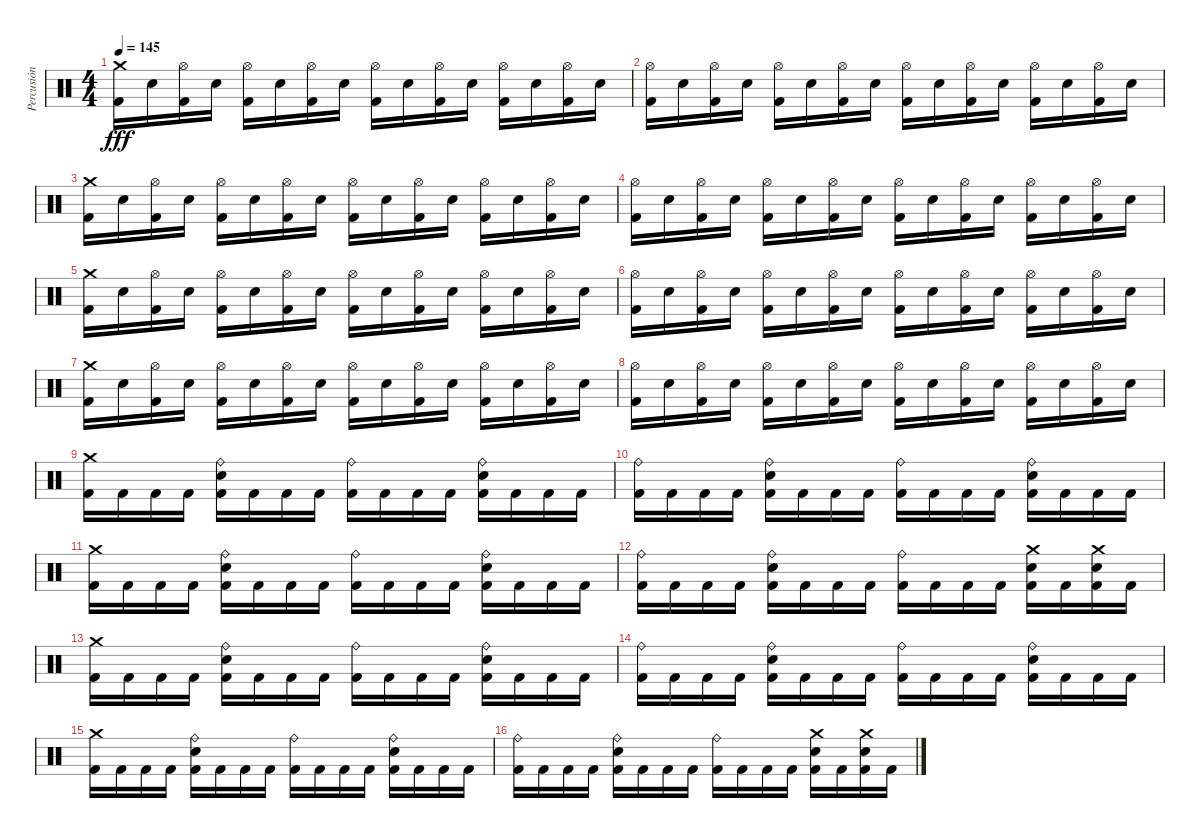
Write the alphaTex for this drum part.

\track ("Percusión" "Percusión") {instrument percussion}
\staff {score}
\articulation defaults
\ts (4 4)
\tempo 145
\clef neutral
\ks c
("Crash medium (hit)" "Kick (hit) 2").16{dy fff} "Snare (hit) 2".16 ("Hi-Hat (open)" "Kick (hit) 2").16 "Snare (hit) 2".16 ("Hi-Hat (open)" "Kick (hit) 2").16 "Snare (hit) 2".16 ("Hi-Hat (open)" "Kick (hit) 2").16 "Snare (hit) 2".16 ("Hi-Hat (open)" "Kick (hit) 2").16 "Snare (hit) 2".16 ("Hi-Hat (open)" "Kick (hit) 2").16 "Snare (hit) 2".16 ("Hi-Hat (open)" "Kick (hit) 2").16 "Snare (hit) 2".16 ("Hi-Hat (open)" "Kick (hit) 2").16 "Snare (hit) 2".16 |
("Hi-Hat (open)" "Kick (hit) 2").16 "Snare (hit) 2".16 ("Hi-Hat (open)" "Kick (hit) 2").16 "Snare (hit) 2".16 ("Hi-Hat (open)" "Kick (hit) 2").16 "Snare (hit) 2".16 ("Hi-Hat (open)" "Kick (hit) 2").16 "Snare (hit) 2".16 ("Hi-Hat (open)" "Kick (hit) 2").16 "Snare (hit) 2".16 ("Hi-Hat (open)" "Kick (hit) 2").16 "Snare (hit) 2".16 ("Hi-Hat (open)" "Kick (hit) 2").16 "Snare (hit) 2".16 ("Hi-Hat (open)" "Kick (hit) 2").16 "Snare (hit) 2".16 |
("Crash medium (hit)" "Kick (hit) 2").16 "Snare (hit) 2".16 ("Hi-Hat (open)" "Kick (hit) 2").16 "Snare (hit) 2".16 ("Hi-Hat (open)" "Kick (hit) 2").16 "Snare (hit) 2".16 ("Hi-Hat (open)" "Kick (hit) 2").16 "Snare (hit) 2".16 ("Hi-Hat (open)" "Kick (hit) 2").16 "Snare (hit) 2".16 ("Hi-Hat (open)" "Kick (hit) 2").16 "Snare (hit) 2".16 ("Hi-Hat (open)" "Kick (hit) 2").16 "Snare (hit) 2".16 ("Hi-Hat (open)" "Kick (hit) 2").16 "Snare (hit) 2".16 |
("Hi-Hat (open)" "Kick (hit) 2").16 "Snare (hit) 2".16 ("Hi-Hat (open)" "Kick (hit) 2").16 "Snare (hit) 2".16 ("Hi-Hat (open)" "Kick (hit) 2").16 "Snare (hit) 2".16 ("Hi-Hat (open)" "Kick (hit) 2").16 "Snare (hit) 2".16 ("Hi-Hat (open)" "Kick (hit) 2").16 "Snare (hit) 2".16 ("Hi-Hat (open)" "Kick (hit) 2").16 "Snare (hit) 2".16 ("Hi-Hat (open)" "Kick (hit) 2").16 "Snare (hit) 2".16 ("Hi-Hat (open)" "Kick (hit) 2").16 "Snare (hit) 2".16 |
("Crash medium (hit)" "Kick (hit) 2").16 "Snare (hit) 2".16 ("Hi-Hat (open)" "Kick (hit) 2").16 "Snare (hit) 2".16 ("Hi-Hat (open)" "Kick (hit) 2").16 "Snare (hit) 2".16 ("Hi-Hat (open)" "Kick (hit) 2").16 "Snare (hit) 2".16 ("Hi-Hat (open)" "Kick (hit) 2").16 "Snare (hit) 2".16 ("Hi-Hat (open)" "Kick (hit) 2").16 "Snare (hit) 2".16 ("Hi-Hat (open)" "Kick (hit) 2").16 "Snare (hit) 2".16 ("Hi-Hat (open)" "Kick (hit) 2").16 "Snare (hit) 2".16 |
("Hi-Hat (open)" "Kick (hit) 2").16 "Snare (hit) 2".16 ("Hi-Hat (open)" "Kick (hit) 2").16 "Snare (hit) 2".16 ("Hi-Hat (open)" "Kick (hit) 2").16 "Snare (hit) 2".16 ("Hi-Hat (open)" "Kick (hit) 2").16 "Snare (hit) 2".16 ("Hi-Hat (open)" "Kick (hit) 2").16 "Snare (hit) 2".16 ("Hi-Hat (open)" "Kick (hit) 2").16 "Snare (hit) 2".16 ("Hi-Hat (open)" "Kick (hit) 2").16 "Snare (hit) 2".16 ("Hi-Hat (open)" "Kick (hit) 2").16 "Snare (hit) 2".16 |
("Crash medium (hit)" "Kick (hit) 2").16 "Snare (hit) 2".16 ("Hi-Hat (open)" "Kick (hit) 2").16 "Snare (hit) 2".16 ("Hi-Hat (open)" "Kick (hit) 2").16 "Snare (hit) 2".16 ("Hi-Hat (open)" "Kick (hit) 2").16 "Snare (hit) 2".16 ("Hi-Hat (open)" "Kick (hit) 2").16 "Snare (hit) 2".16 ("Hi-Hat (open)" "Kick (hit) 2").16 "Snare (hit) 2".16 ("Hi-Hat (open)" "Kick (hit) 2").16 "Snare (hit) 2".16 ("Hi-Hat (open)" "Kick (hit) 2").16 "Snare (hit) 2".16 |
("Hi-Hat (open)" "Kick (hit) 2").16 "Snare (hit) 2".16 ("Hi-Hat (open)" "Kick (hit) 2").16 "Snare (hit) 2".16 ("Hi-Hat (open)" "Kick (hit) 2").16 "Snare (hit) 2".16 ("Hi-Hat (open)" "Kick (hit) 2").16 "Snare (hit) 2".16 ("Hi-Hat (open)" "Kick (hit) 2").16 "Snare (hit) 2".16 ("Hi-Hat (open)" "Kick (hit) 2").16 "Snare (hit) 2".16 ("Hi-Hat (open)" "Kick (hit) 2").16 "Snare (hit) 2".16 ("Hi-Hat (open)" "Kick (hit) 2").16 "Snare (hit) 2".16 |
("Crash medium (hit)" "Kick (hit) 2").16 "Kick (hit) 2".16 "Kick (hit) 2".16 "Kick (hit) 2".16 ("Ride (bell)" "Snare (hit) 2" "Kick (hit) 2").16 "Kick (hit) 2".16 "Kick (hit) 2".16 "Kick (hit) 2".16 ("Ride (bell)" "Kick (hit) 2").16 "Kick (hit) 2".16 "Kick (hit) 2".16 "Kick (hit) 2".16 ("Ride (bell)" "Snare (hit) 2" "Kick (hit) 2").16 "Kick (hit) 2".16 "Kick (hit) 2".16 "Kick (hit) 2".16 |
("Ride (bell)" "Kick (hit) 2").16 "Kick (hit) 2".16 "Kick (hit) 2".16 "Kick (hit) 2".16 ("Ride (bell)" "Snare (hit) 2" "Kick (hit) 2").16 "Kick (hit) 2".16 "Kick (hit) 2".16 "Kick (hit) 2".16 ("Ride (bell)" "Kick (hit) 2").16 "Kick (hit) 2".16 "Kick (hit) 2".16 "Kick (hit) 2".16 ("Ride (bell)" "Snare (hit) 2" "Kick (hit) 2").16 "Kick (hit) 2".16 "Kick (hit) 2".16 "Kick (hit) 2".16 |
("Crash medium (hit)" "Kick (hit) 2").16 "Kick (hit) 2".16 "Kick (hit) 2".16 "Kick (hit) 2".16 ("Ride (bell)" "Snare (hit) 2" "Kick (hit) 2").16 "Kick (hit) 2".16 "Kick (hit) 2".16 "Kick (hit) 2".16 ("Ride (bell)" "Kick (hit) 2").16 "Kick (hit) 2".16 "Kick (hit) 2".16 "Kick (hit) 2".16 ("Ride (bell)" "Snare (hit) 2" "Kick (hit) 2").16 "Kick (hit) 2".16 "Kick (hit) 2".16 "Kick (hit) 2".16 |
("Ride (bell)" "Kick (hit) 2").16 "Kick (hit) 2".16 "Kick (hit) 2".16 "Kick (hit) 2".16 ("Ride (bell)" "Snare (hit) 2" "Kick (hit) 2").16 "Kick (hit) 2".16 "Kick (hit) 2".16 "Kick (hit) 2".16 ("Ride (bell)" "Kick (hit) 2").16 "Kick (hit) 2".16 "Kick (hit) 2".16 "Kick (hit) 2".16 ("Crash medium (hit)" "Snare (hit) 2" "Kick (hit) 2").16 "Kick (hit) 2".16 ("Crash medium (hit)" "Snare (hit) 2" "Kick (hit) 2").16 "Kick (hit) 2".16 |
("Crash medium (hit)" "Kick (hit) 2").16 "Kick (hit) 2".16 "Kick (hit) 2".16 "Kick (hit) 2".16 ("Ride (bell)" "Snare (hit) 2" "Kick (hit) 2").16 "Kick (hit) 2".16 "Kick (hit) 2".16 "Kick (hit) 2".16 ("Ride (bell)" "Kick (hit) 2").16 "Kick (hit) 2".16 "Kick (hit) 2".16 "Kick (hit) 2".16 ("Ride (bell)" "Snare (hit) 2" "Kick (hit) 2").16 "Kick (hit) 2".16 "Kick (hit) 2".16 "Kick (hit) 2".16 |
("Ride (bell)" "Kick (hit) 2").16 "Kick (hit) 2".16 "Kick (hit) 2".16 "Kick (hit) 2".16 ("Ride (bell)" "Snare (hit) 2" "Kick (hit) 2").16 "Kick (hit) 2".16 "Kick (hit) 2".16 "Kick (hit) 2".16 ("Ride (bell)" "Kick (hit) 2").16 "Kick (hit) 2".16 "Kick (hit) 2".16 "Kick (hit) 2".16 ("Ride (bell)" "Snare (hit) 2" "Kick (hit) 2").16 "Kick (hit) 2".16 "Kick (hit) 2".16 "Kick (hit) 2".16 |
("Crash medium (hit)" "Kick (hit) 2").16 "Kick (hit) 2".16 "Kick (hit) 2".16 "Kick (hit) 2".16 ("Ride (bell)" "Snare (hit) 2" "Kick (hit) 2").16 "Kick (hit) 2".16 "Kick (hit) 2".16 "Kick (hit) 2".16 ("Ride (bell)" "Kick (hit) 2").16 "Kick (hit) 2".16 "Kick (hit) 2".16 "Kick (hit) 2".16 ("Ride (bell)" "Snare (hit) 2" "Kick (hit) 2").16 "Kick (hit) 2".16 "Kick (hit) 2".16 "Kick (hit) 2".16 |
("Ride (bell)" "Kick (hit) 2").16 "Kick (hit) 2".16 "Kick (hit) 2".16 "Kick (hit) 2".16 ("Ride (bell)" "Snare (hit) 2" "Kick (hit) 2").16 "Kick (hit) 2".16 "Kick (hit) 2".16 "Kick (hit) 2".16 ("Ride (bell)" "Kick (hit) 2").16 "Kick (hit) 2".16 "Kick (hit) 2".16 "Kick (hit) 2".16 ("Crash medium (hit)" "Snare (hit) 2" "Kick (hit) 2").16 "Kick (hit) 2".16 ("Crash medium (hit)" "Snare (hit) 2" "Kick (hit) 2").16 "Kick (hit) 2".16
